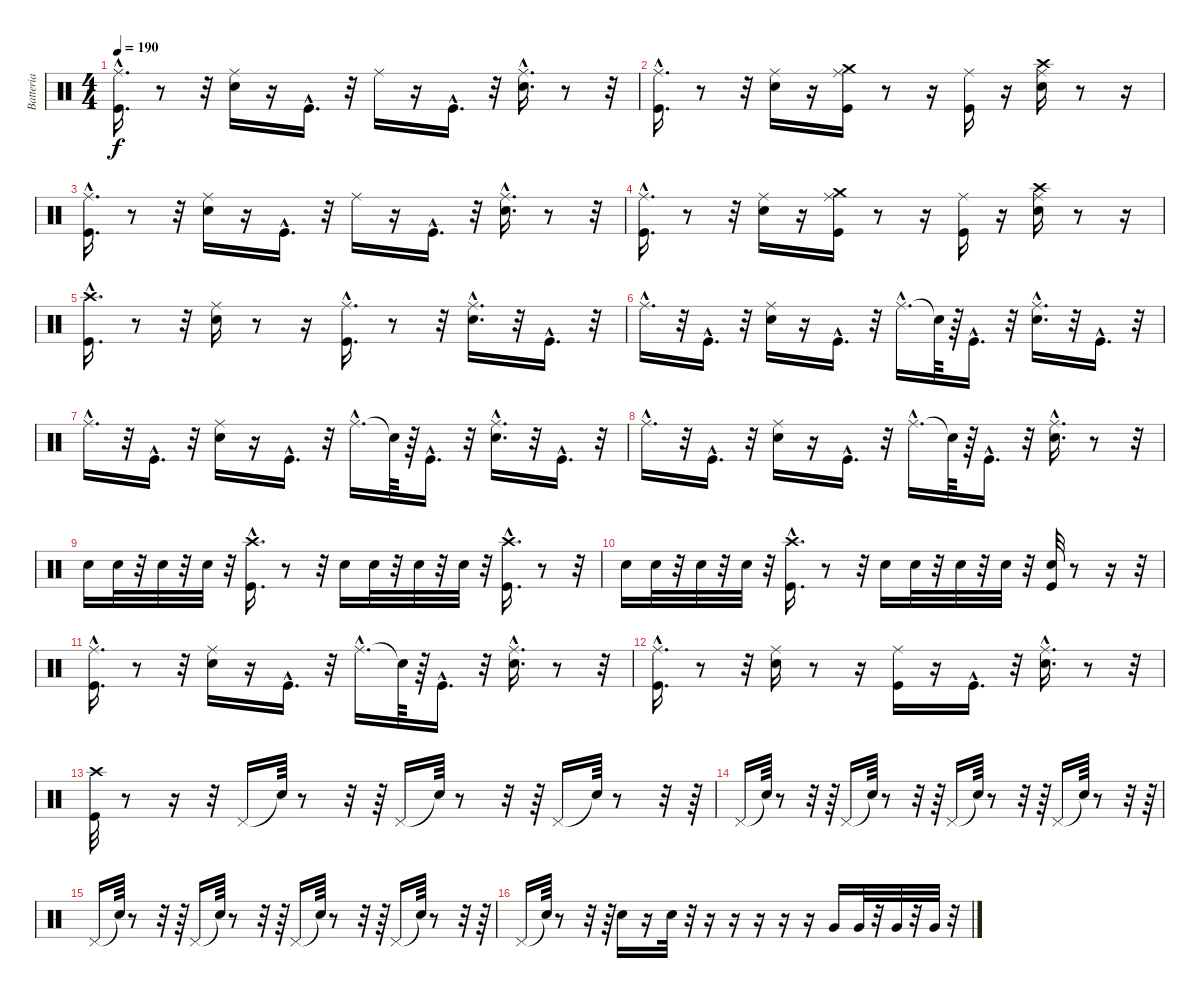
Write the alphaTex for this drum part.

\track ("Batteria" "Batteria") {instrument percussion}
\staff {score}
\articulation defaults
\ts (4 4)
\tempo 190
\clef neutral
\ks c
("Kick (hit)"{hac} "Ride (middle)"{hac}).16{d dy f} r.8 r.32 ("Snare (hit) 2" "Ride (middle)").16 r.16 "Kick (hit)"{hac}.16{d} r.32 "Ride (middle)".16 r.16 "Kick (hit)"{hac}.16{d} r.32 ("Snare (hit) 2"{hac} "Ride (middle)"{hac}).16{d} r.8 r.32 |
("Ride (middle)"{hac} "Kick (hit)"{hac}).16{d} r.8 r.32 ("Snare (hit) 2" "Ride (middle)").16 r.16 ("Ride (middle)" "Crash medium (hit)" "Kick (hit)").16 r.8 r.16 ("Kick (hit)" "Ride (middle)").16 r.16 ("Ride (middle)" "Crash high (hit)" "Snare (hit) 2").16 r.8 r.16 |
("Kick (hit)"{hac} "Ride (middle)"{hac}).16{d} r.8 r.32 ("Snare (hit) 2" "Ride (middle)").16 r.16 "Kick (hit)"{hac}.16{d} r.32 "Ride (middle)".16 r.16 "Kick (hit)"{hac}.16{d} r.32 ("Snare (hit) 2"{hac} "Ride (middle)"{hac}).16{d} r.8 r.32 |
("Ride (middle)"{hac} "Kick (hit)"{hac}).16{d} r.8 r.32 ("Ride (middle)" "Snare (hit) 2").16 r.16 ("Ride (middle)" "Crash medium (hit)" "Kick (hit)").16 r.8 r.16 ("Ride (middle)" "Kick (hit)").16 r.16 ("Ride (middle)" "Crash high (hit)" "Snare (hit) 2").16 r.8 r.16 |
("Kick (hit)"{hac} "Crash high (hit)"{hac}).16{d} r.8 r.32 ("Snare (hit) 2" "Ride (middle)").16 r.8 r.16 ("Kick (hit)"{hac} "Ride (middle)"{hac}).16{d} r.8 r.32 ("Ride (middle)"{hac} "Snare (hit) 2"{hac}).16{d} r.32 "Kick (hit)"{hac}.16{d} r.32 |
"Ride (middle)"{hac}.16{d} r.32 "Kick (hit)"{hac}.16{d} r.32 ("Ride (middle)" "Snare (hit) 2").16 r.16 "Kick (hit)"{hac}.16{d} r.32 "Ride (middle)"{hac}.16{d} "Snare (hit)"{t}.64 r.64 "Kick (hit)"{hac}.16{d} r.32 ("Snare (hit) 2"{hac} "Ride (middle)"{hac}).16{d} r.32 "Kick (hit)"{hac}.16{d} r.32 |
"Ride (middle)"{hac}.16{d} r.32 "Kick (hit)"{hac}.16{d} r.32 ("Snare (hit) 2" "Ride (middle)").16 r.16 "Kick (hit)"{hac}.16{d} r.32 "Ride (middle)"{hac}.16{d} "Snare (hit)"{t}.64 r.64 "Kick (hit)"{hac}.16{d} r.32 ("Snare (hit) 2"{hac} "Ride (middle)"{hac}).16{d} r.32 "Kick (hit)"{hac}.16{d} r.32 |
"Ride (middle)"{hac}.16{d} r.32 "Kick (hit)"{hac}.16{d} r.32 ("Snare (hit) 2" "Ride (middle)").16 r.16 "Kick (hit)"{hac}.16{d} r.32 "Ride (middle)"{hac}.16{d} "Snare (hit)"{t}.64 r.64 "Kick (hit)"{hac}.16{d} r.32 ("Snare (hit) 2"{hac} "Ride (middle)"{hac}).16{d} r.8 r.32 |
"Snare (hit) 2".16 "Snare (hit) 2".32 r.32 "Snare (hit) 2".32 r.32 "Snare (hit) 2".32 r.32 ("Kick (hit)"{hac} "Crash high (hit)"{hac}).16{d} r.8 r.32 "Snare (hit) 2".16 "Snare (hit) 2".32 r.32 "Snare (hit) 2".32 r.32 "Snare (hit) 2".32 r.32 ("Kick (hit)"{hac} "Crash high (hit)"{hac}).16{d} r.8 r.32 |
"Snare (hit) 2".16 "Snare (hit) 2".32 r.32 "Snare (hit) 2".32 r.32 "Snare (hit) 2".32 r.32 ("Crash high (hit)"{hac} "Kick (hit)"{hac}).16{d} r.8 r.32 "Snare (hit) 2".16 "Snare (hit) 2".32 r.32 "Snare (hit) 2".32 r.32 "Snare (hit) 2".32 r.32 ("Snare (hit) 2" "Kick (hit)").32 r.8 r.16 r.32 |
("Kick (hit)"{hac} "Ride (middle)"{hac}).16{d} r.8 r.32 ("Snare (hit) 2" "Ride (middle)").16 r.16 "Kick (hit)"{hac}.16{d} r.32 "Ride (middle)"{hac}.16{d} "Snare (hit)"{t}.64 r.64 "Kick (hit)"{hac}.16{d} r.32 ("Snare (hit) 2"{hac} "Ride (middle)"{hac}).16{d} r.8 r.32 |
("Kick (hit)"{hac} "Ride (middle)"{hac}).16{d} r.8 r.32 ("Snare (hit) 2" "Ride (middle)").16 r.8 r.16 ("Ride (middle)" "Kick (hit)").16 r.16 "Kick (hit)"{hac}.16{d} r.32 ("Ride (middle)"{hac} "Snare (hit) 2"{hac}).16{d} r.8 r.32 |
("Kick (hit)" "Crash high (hit)").32{volume 16} r.8 r.16 r.32 "Pedal Hi-Hat (hit)".16 "Snare (hit)"{t}.64 r.8 r.32 r.64 "Pedal Hi-Hat (hit)".16 "Snare (hit)"{t}.64 r.8 r.32 r.64 "Pedal Hi-Hat (hit)".16 "Snare (hit)"{t}.64 r.8 r.32 r.64 |
"Pedal Hi-Hat (hit)".16 "Snare (hit)"{t}.64 r.8 r.32 r.64 "Pedal Hi-Hat (hit)".16 "Snare (hit)"{t}.64 r.8 r.32 r.64 "Pedal Hi-Hat (hit)".16 "Snare (hit)"{t}.64 r.8 r.32 r.64 "Pedal Hi-Hat (hit)".16 "Snare (hit)"{t}.64 r.8 r.32 r.64 |
"Pedal Hi-Hat (hit)".16 "Snare (hit)"{t}.64 r.8 r.32 r.64 "Pedal Hi-Hat (hit)".16 "Snare (hit)"{t}.64 r.8 r.32 r.64 "Pedal Hi-Hat (hit)".16 "Snare (hit)"{t}.64 r.8 r.32 r.64 "Pedal Hi-Hat (hit)".16 "Snare (hit)"{t}.64 r.8 r.32 r.64 |
"Pedal Hi-Hat (hit)".16 "Snare (hit)"{t}.64 r.8 r.32 r.64 "Snare (hit) 2".16 r.16 "Snare (hit) 2".32 r.32 r.16 r.16 r.16 r.16 r.16 "Very Low Tom (hit)".16 "Very Low Tom (hit)".32 r.32 "Very Low Tom (hit)".32 r.32 "Very Low Tom (hit)".32 r.32
